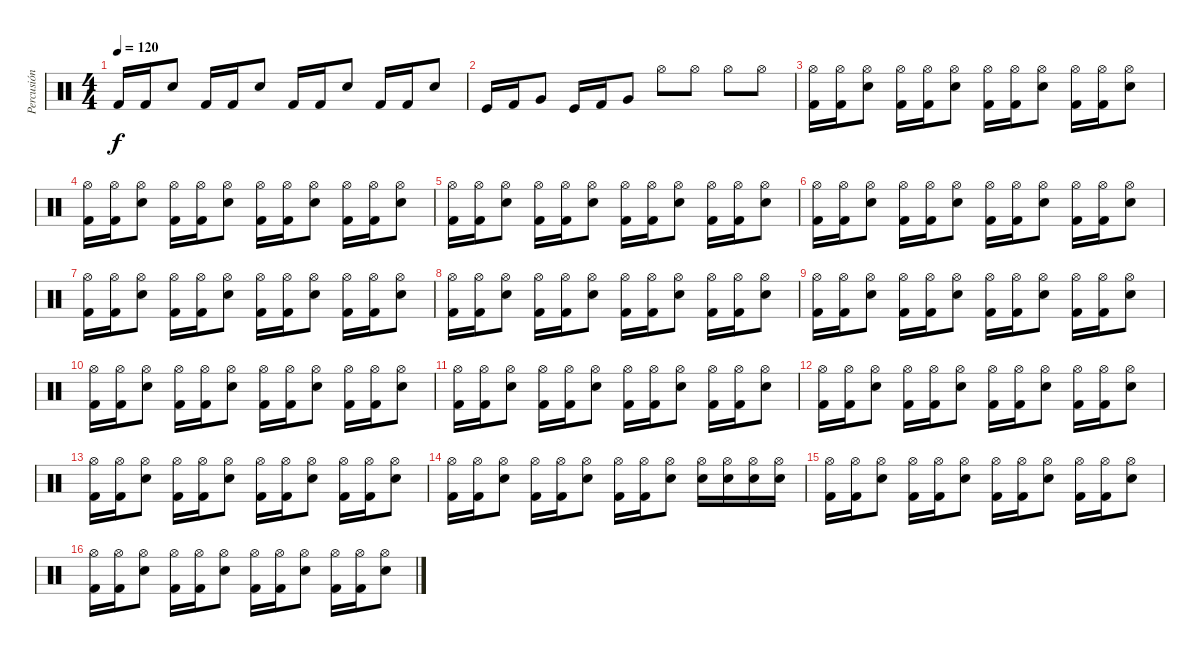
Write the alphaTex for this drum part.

\track ("Percusión" "Percusión") {instrument percussion}
\staff {score}
\articulation defaults
\ts (4 4)
\tempo 120
\clef neutral
\ks c "Kick (hit) 2".16{dy f} "Kick (hit) 2".16 "Snare (hit) 2".8 "Kick (hit) 2".16 "Kick (hit) 2".16 "Snare (hit) 2".8 "Kick (hit) 2".16 "Kick (hit) 2".16 "Snare (hit) 2".8 "Kick (hit) 2".16 "Kick (hit) 2".16 "Snare (hit) 2".8
|
"Kick (hit)".16 "Kick (hit) 2".16 "Very Low Tom (hit)".8 "Kick (hit)".16 "Kick (hit) 2".16 "Very Low Tom (hit)".8 "Hi-Hat (open)".8 "Hi-Hat (open)".8 "Hi-Hat (open)".8 "Hi-Hat (open)".8 |
("Kick (hit) 2" "Hi-Hat (open)").16 ("Kick (hit) 2" "Hi-Hat (open)").16 ("Snare (hit) 2" "Hi-Hat (open)").8 ("Kick (hit) 2" "Hi-Hat (open)").16 ("Kick (hit) 2" "Hi-Hat (open)").16 ("Snare (hit) 2" "Hi-Hat (open)").8 ("Kick (hit) 2" "Hi-Hat (open)").16 ("Kick (hit) 2" "Hi-Hat (open)").16 ("Snare (hit) 2" "Hi-Hat (open)").8 ("Kick (hit) 2" "Hi-Hat (open)").16 ("Kick (hit) 2" "Hi-Hat (open)").16 ("Snare (hit) 2" "Hi-Hat (open)").8 |
("Kick (hit) 2" "Hi-Hat (open)").16 ("Kick (hit) 2" "Hi-Hat (open)").16 ("Snare (hit) 2" "Hi-Hat (open)").8 ("Kick (hit) 2" "Hi-Hat (open)").16 ("Kick (hit) 2" "Hi-Hat (open)").16 ("Snare (hit) 2" "Hi-Hat (open)").8 ("Kick (hit) 2" "Hi-Hat (open)").16 ("Kick (hit) 2" "Hi-Hat (open)").16 ("Snare (hit) 2" "Hi-Hat (open)").8 ("Kick (hit) 2" "Hi-Hat (open)").16 ("Kick (hit) 2" "Hi-Hat (open)").16 ("Snare (hit) 2" "Hi-Hat (open)").8 |
("Kick (hit) 2" "Hi-Hat (open)").16 ("Kick (hit) 2" "Hi-Hat (open)").16 ("Snare (hit) 2" "Hi-Hat (open)").8 ("Kick (hit) 2" "Hi-Hat (open)").16 ("Kick (hit) 2" "Hi-Hat (open)").16 ("Snare (hit) 2" "Hi-Hat (open)").8 ("Kick (hit) 2" "Hi-Hat (open)").16 ("Kick (hit) 2" "Hi-Hat (open)").16 ("Snare (hit) 2" "Hi-Hat (open)").8 ("Kick (hit) 2" "Hi-Hat (open)").16 ("Kick (hit) 2" "Hi-Hat (open)").16 ("Snare (hit) 2" "Hi-Hat (open)").8 |
("Kick (hit) 2" "Hi-Hat (open)").16 ("Kick (hit) 2" "Hi-Hat (open)").16 ("Snare (hit) 2" "Hi-Hat (open)").8 ("Kick (hit) 2" "Hi-Hat (open)").16 ("Kick (hit) 2" "Hi-Hat (open)").16 ("Snare (hit) 2" "Hi-Hat (open)").8 ("Kick (hit) 2" "Hi-Hat (open)").16 ("Kick (hit) 2" "Hi-Hat (open)").16 ("Snare (hit) 2" "Hi-Hat (open)").8 ("Kick (hit) 2" "Hi-Hat (open)").16 ("Kick (hit) 2" "Hi-Hat (open)").16 ("Snare (hit) 2" "Hi-Hat (open)").8 |
("Kick (hit) 2" "Hi-Hat (open)").16 ("Kick (hit) 2" "Hi-Hat (open)").16 ("Snare (hit) 2" "Hi-Hat (open)").8 ("Kick (hit) 2" "Hi-Hat (open)").16 ("Kick (hit) 2" "Hi-Hat (open)").16 ("Snare (hit) 2" "Hi-Hat (open)").8 ("Kick (hit) 2" "Hi-Hat (open)").16 ("Kick (hit) 2" "Hi-Hat (open)").16 ("Snare (hit) 2" "Hi-Hat (open)").8 ("Kick (hit) 2" "Hi-Hat (open)").16 ("Kick (hit) 2" "Hi-Hat (open)").16 ("Snare (hit) 2" "Hi-Hat (open)").8 |
("Kick (hit) 2" "Hi-Hat (open)").16 ("Kick (hit) 2" "Hi-Hat (open)").16 ("Snare (hit) 2" "Hi-Hat (open)").8 ("Kick (hit) 2" "Hi-Hat (open)").16 ("Kick (hit) 2" "Hi-Hat (open)").16 ("Snare (hit) 2" "Hi-Hat (open)").8 ("Kick (hit) 2" "Hi-Hat (open)").16 ("Kick (hit) 2" "Hi-Hat (open)").16 ("Snare (hit) 2" "Hi-Hat (open)").8 ("Kick (hit) 2" "Hi-Hat (open)").16 ("Kick (hit) 2" "Hi-Hat (open)").16 ("Snare (hit) 2" "Hi-Hat (open)").8 |
("Kick (hit) 2" "Hi-Hat (open)").16 ("Kick (hit) 2" "Hi-Hat (open)").16 ("Snare (hit) 2" "Hi-Hat (open)").8 ("Kick (hit) 2" "Hi-Hat (open)").16 ("Kick (hit) 2" "Hi-Hat (open)").16 ("Snare (hit) 2" "Hi-Hat (open)").8 ("Kick (hit) 2" "Hi-Hat (open)").16 ("Kick (hit) 2" "Hi-Hat (open)").16 ("Snare (hit) 2" "Hi-Hat (open)").8 ("Kick (hit) 2" "Hi-Hat (open)").16 ("Kick (hit) 2" "Hi-Hat (open)").16 ("Snare (hit) 2" "Hi-Hat (open)").8 |
("Kick (hit) 2" "Hi-Hat (open)").16 ("Kick (hit) 2" "Hi-Hat (open)").16 ("Snare (hit) 2" "Hi-Hat (open)").8 ("Kick (hit) 2" "Hi-Hat (open)").16 ("Kick (hit) 2" "Hi-Hat (open)").16 ("Snare (hit) 2" "Hi-Hat (open)").8 ("Kick (hit) 2" "Hi-Hat (open)").16 ("Kick (hit) 2" "Hi-Hat (open)").16 ("Snare (hit) 2" "Hi-Hat (open)").8 ("Kick (hit) 2" "Hi-Hat (open)").16 ("Kick (hit) 2" "Hi-Hat (open)").16 ("Snare (hit) 2" "Hi-Hat (open)").8 |
("Kick (hit) 2" "Hi-Hat (open)").16 ("Kick (hit) 2" "Hi-Hat (open)").16 ("Snare (hit) 2" "Hi-Hat (open)").8 ("Kick (hit) 2" "Hi-Hat (open)").16 ("Kick (hit) 2" "Hi-Hat (open)").16 ("Snare (hit) 2" "Hi-Hat (open)").8 ("Kick (hit) 2" "Hi-Hat (open)").16 ("Kick (hit) 2" "Hi-Hat (open)").16 ("Snare (hit) 2" "Hi-Hat (open)").8 ("Kick (hit) 2" "Hi-Hat (open)").16 ("Kick (hit) 2" "Hi-Hat (open)").16 ("Snare (hit) 2" "Hi-Hat (open)").8 |
("Kick (hit) 2" "Hi-Hat (open)").16 ("Kick (hit) 2" "Hi-Hat (open)").16 ("Snare (hit) 2" "Hi-Hat (open)").8 ("Kick (hit) 2" "Hi-Hat (open)").16 ("Kick (hit) 2" "Hi-Hat (open)").16 ("Snare (hit) 2" "Hi-Hat (open)").8 ("Kick (hit) 2" "Hi-Hat (open)").16 ("Kick (hit) 2" "Hi-Hat (open)").16 ("Snare (hit) 2" "Hi-Hat (open)").8 ("Kick (hit) 2" "Hi-Hat (open)").16 ("Kick (hit) 2" "Hi-Hat (open)").16 ("Snare (hit) 2" "Hi-Hat (open)").8 |
("Kick (hit) 2" "Hi-Hat (open)").16 ("Kick (hit) 2" "Hi-Hat (open)").16 ("Snare (hit) 2" "Hi-Hat (open)").8 ("Kick (hit) 2" "Hi-Hat (open)").16 ("Kick (hit) 2" "Hi-Hat (open)").16 ("Snare (hit) 2" "Hi-Hat (open)").8 ("Kick (hit) 2" "Hi-Hat (open)").16 ("Kick (hit) 2" "Hi-Hat (open)").16 ("Snare (hit) 2" "Hi-Hat (open)").8 ("Kick (hit) 2" "Hi-Hat (open)").16 ("Kick (hit) 2" "Hi-Hat (open)").16 ("Snare (hit) 2" "Hi-Hat (open)").8 |
("Kick (hit) 2" "Hi-Hat (open)").16 ("Kick (hit) 2" "Hi-Hat (open)").16 ("Snare (hit) 2" "Hi-Hat (open)").8 ("Kick (hit) 2" "Hi-Hat (open)").16 ("Kick (hit) 2" "Hi-Hat (open)").16 ("Snare (hit) 2" "Hi-Hat (open)").8 ("Kick (hit) 2" "Hi-Hat (open)").16 ("Kick (hit) 2" "Hi-Hat (open)").16 ("Snare (hit) 2" "Hi-Hat (open)").8 ("Snare (hit) 2" "Hi-Hat (open)").16 ("Electric Snare (hit)" "Hi-Hat (open)").16 ("Snare (hit) 2" "Hi-Hat (open)").16 ("Electric Snare (hit)" "Hi-Hat (open)").16 |
("Kick (hit) 2" "Hi-Hat (open)").16 ("Kick (hit) 2" "Hi-Hat (open)").16 ("Snare (hit) 2" "Hi-Hat (open)").8 ("Kick (hit) 2" "Hi-Hat (open)").16 ("Kick (hit) 2" "Hi-Hat (open)").16 ("Snare (hit) 2" "Hi-Hat (open)").8 ("Kick (hit) 2" "Hi-Hat (open)").16 ("Kick (hit) 2" "Hi-Hat (open)").16 ("Snare (hit) 2" "Hi-Hat (open)").8 ("Kick (hit) 2" "Hi-Hat (open)").16 ("Kick (hit) 2" "Hi-Hat (open)").16 ("Snare (hit) 2" "Hi-Hat (open)").8 |
("Kick (hit) 2" "Hi-Hat (open)").16 ("Kick (hit) 2" "Hi-Hat (open)").16 ("Snare (hit) 2" "Hi-Hat (open)").8 ("Kick (hit) 2" "Hi-Hat (open)").16 ("Kick (hit) 2" "Hi-Hat (open)").16 ("Snare (hit) 2" "Hi-Hat (open)").8 ("Kick (hit) 2" "Hi-Hat (open)").16 ("Kick (hit) 2" "Hi-Hat (open)").16 ("Snare (hit) 2" "Hi-Hat (open)").8 ("Kick (hit) 2" "Hi-Hat (open)").16 ("Kick (hit) 2" "Hi-Hat (open)").16 ("Snare (hit) 2" "Hi-Hat (open)").8
